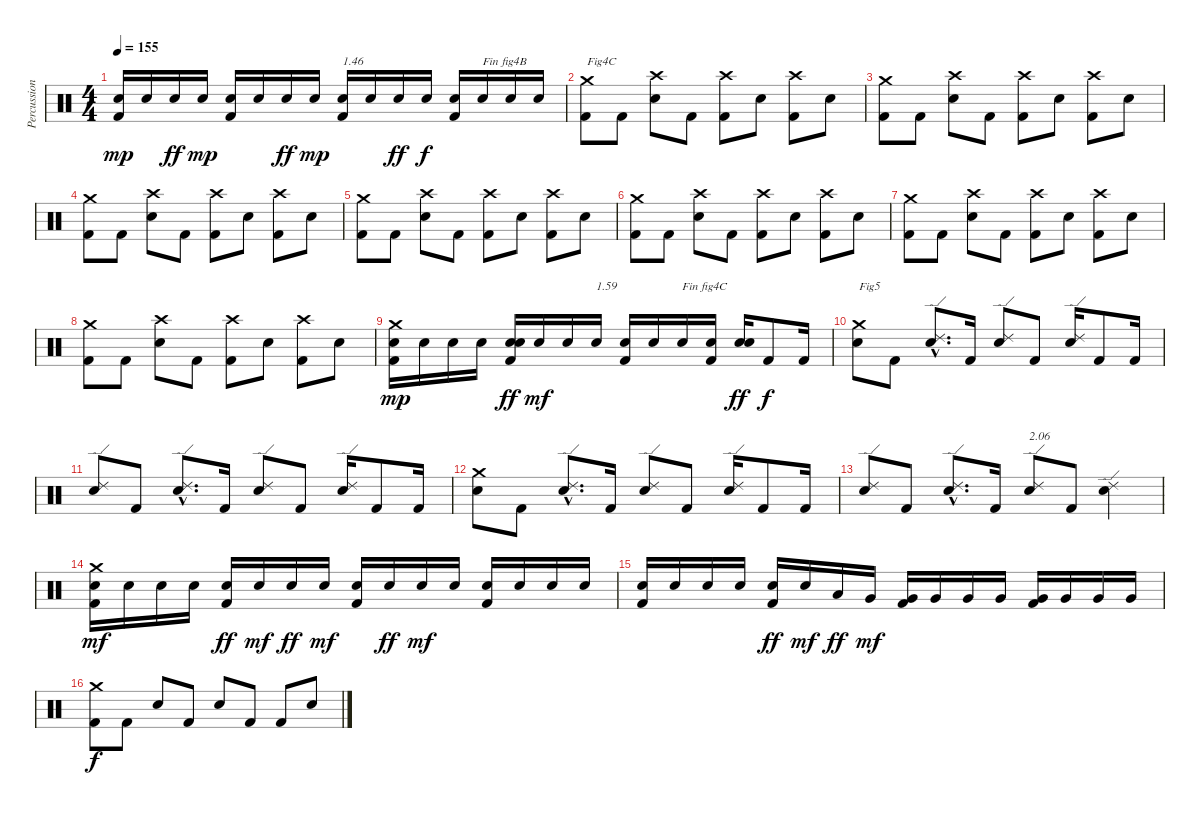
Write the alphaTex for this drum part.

\track ("Percussions" "Percussion") {instrument percussion}
\staff {score}
\articulation defaults
\ts (4 4)
\tempo 155
\clef neutral
\ks c
("Kick (hit) 2" "Electric Snare (hit)").16{dy mp} "Electric Snare (hit)".16 "Electric Snare (hit)".16{dy ff} "Electric Snare (hit)".16{dy mp} ("Kick (hit) 2" "Electric Snare (hit)").16 "Electric Snare (hit)".16 "Electric Snare (hit)".16{dy ff} "Electric Snare (hit)".16{dy mp} ("Kick (hit) 2" "Electric Snare (hit)").16{txt "1.46"} "Electric Snare (hit)".16 "Electric Snare (hit)".16{dy ff} "Electric Snare (hit)".16{dy f} ("Kick (hit) 2" "Electric Snare (hit)").16 "Electric Snare (hit)".16{txt "Fin fig4B"} "Electric Snare (hit)".16 "Electric Snare (hit)".16 |
("Kick (hit) 2" "Crash medium (hit)").8{txt "Fig4C"} "Kick (hit) 2".8 ("Electric Snare (hit)" "Crash high (hit)").8 "Kick (hit) 2".8 ("Kick (hit) 2" "Crash high (hit)").8 "Electric Snare (hit)".8 ("Kick (hit) 2" "Crash high (hit)").8 "Electric Snare (hit)".8 |
("Kick (hit) 2" "Crash medium (hit)").8 "Kick (hit) 2".8 ("Electric Snare (hit)" "Crash high (hit)").8 "Kick (hit) 2".8 ("Kick (hit) 2" "Crash high (hit)").8 "Electric Snare (hit)".8 ("Kick (hit) 2" "Crash high (hit)").8 "Electric Snare (hit)".8 |
("Kick (hit) 2" "Crash medium (hit)").8 "Kick (hit) 2".8 ("Electric Snare (hit)" "Crash high (hit)").8 "Kick (hit) 2".8 ("Kick (hit) 2" "Crash high (hit)").8 "Electric Snare (hit)".8 ("Kick (hit) 2" "Crash high (hit)").8 "Electric Snare (hit)".8 |
("Kick (hit) 2" "Crash medium (hit)").8 "Kick (hit) 2".8 ("Electric Snare (hit)" "Crash high (hit)").8 "Kick (hit) 2".8 ("Kick (hit) 2" "Crash high (hit)").8 "Electric Snare (hit)".8 ("Kick (hit) 2" "Crash high (hit)").8 "Electric Snare (hit)".8 |
("Kick (hit) 2" "Crash medium (hit)").8 "Kick (hit) 2".8 ("Electric Snare (hit)" "Crash high (hit)").8 "Kick (hit) 2".8 ("Kick (hit) 2" "Crash high (hit)").8 "Electric Snare (hit)".8 ("Kick (hit) 2" "Crash high (hit)").8 "Electric Snare (hit)".8 |
("Kick (hit) 2" "Crash medium (hit)").8 "Kick (hit) 2".8 ("Electric Snare (hit)" "Crash high (hit)").8 "Kick (hit) 2".8 ("Kick (hit) 2" "Crash high (hit)").8 "Electric Snare (hit)".8 ("Kick (hit) 2" "Crash high (hit)").8 "Electric Snare (hit)".8 |
("Kick (hit) 2" "Crash medium (hit)").8 "Kick (hit) 2".8 ("Electric Snare (hit)" "Crash high (hit)").8 "Kick (hit) 2".8 ("Kick (hit) 2" "Crash high (hit)").8 "Electric Snare (hit)".8 ("Kick (hit) 2" "Crash high (hit)").8 "Electric Snare (hit)".8 |
("Kick (hit) 2" "Electric Snare (hit)" "Crash medium (hit)").16{dy mp} "Electric Snare (hit)".16 "Electric Snare (hit)".16 "Electric Snare (hit)".16 ("Kick (hit) 2" "Electric Snare (hit)" "Electric Snare (hit)").16{dy ff} "Electric Snare (hit)".16{dy mf} "Electric Snare (hit)".16 "Electric Snare (hit)".16{txt "1.59"} ("Kick (hit) 2" "Electric Snare (hit)").16 "Electric Snare (hit)".16 "Electric Snare (hit)".16{txt "Fin fig4C"} ("Kick (hit) 2" "Electric Snare (hit)").16 ("Electric Snare (hit)" "Electric Snare (hit)").16{dy ff} "Kick (hit) 2".8{dy f} "Kick (hit) 2".16 |
("Electric Snare (hit)" "Crash medium (hit)").8{txt "Fig5"} "Kick (hit) 2".8 ("Electric Snare (hit)"{hac} "Ride (edge) 2"{hac}).8{d} "Kick (hit) 2".16 ("Electric Snare (hit)" "Ride (edge) 2").8 "Kick (hit) 2".8 ("Electric Snare (hit)" "Ride (edge) 2").16 "Kick (hit) 2".8 "Kick (hit) 2".16 |
("Electric Snare (hit)" "Ride (edge) 2").8 "Kick (hit) 2".8 ("Electric Snare (hit)"{hac} "Ride (edge) 2"{hac}).8{d} "Kick (hit) 2".16 ("Electric Snare (hit)" "Ride (edge) 2").8 "Kick (hit) 2".8 ("Electric Snare (hit)" "Ride (edge) 2").16 "Kick (hit) 2".8 "Kick (hit) 2".16 |
("Electric Snare (hit)" "Crash medium (hit)").8 "Kick (hit) 2".8 ("Electric Snare (hit)"{hac} "Ride (edge) 2"{hac}).8{d} "Kick (hit) 2".16 ("Electric Snare (hit)" "Ride (edge) 2").8 "Kick (hit) 2".8 ("Electric Snare (hit)" "Ride (edge) 2").16 "Kick (hit) 2".8 "Kick (hit) 2".16 |
("Electric Snare (hit)" "Ride (edge) 2").8 "Kick (hit) 2".8 ("Electric Snare (hit)"{hac} "Ride (edge) 2"{hac}).8{d} "Kick (hit) 2".16 ("Electric Snare (hit)" "Ride (edge) 2").8{txt "2.06"} "Kick (hit) 2".8 ("Electric Snare (hit)" "Ride (edge) 2").4 |
("Kick (hit) 2" "Electric Snare (hit)" "Crash medium (hit)").16{dy mf} "Electric Snare (hit)".16 "Electric Snare (hit)".16 "Electric Snare (hit)".16 ("Kick (hit) 2" "Electric Snare (hit)").16{dy ff} "Electric Snare (hit)".16{dy mf} "Electric Snare (hit)".16{dy ff} "Electric Snare (hit)".16{dy mf} ("Kick (hit) 2" "Electric Snare (hit)").16 "Electric Snare (hit)".16{dy ff} "Electric Snare (hit)".16{dy mf} "Electric Snare (hit)".16 ("Kick (hit) 2" "Electric Snare (hit)").16 "Electric Snare (hit)".16 "Electric Snare (hit)".16 "Electric Snare (hit)".16 |
("Kick (hit) 2" "Electric Snare (hit)").16 "Electric Snare (hit)".16 "Electric Snare (hit)".16 "Electric Snare (hit)".16 ("Kick (hit) 2" "Electric Snare (hit)").16{dy ff} "Electric Snare (hit)".16{dy mf} "Low Tom (hit)".16{dy ff} "Very Low Tom (hit)".16{dy mf} ("Kick (hit) 2" "Very Low Tom (hit)").16 "Very Low Tom (hit)".16 "Very Low Tom (hit)".16 "Very Low Tom (hit)".16 ("Kick (hit) 2" "Very Low Tom (hit)").16 "Very Low Tom (hit)".16 "Very Low Tom (hit)".16 "Very Low Tom (hit)".16 |
("Kick (hit) 2" "Crash medium (hit)").8{dy f} "Kick (hit) 2".8 "Electric Snare (hit)".8 "Kick (hit) 2".8 "Electric Snare (hit)".8 "Kick (hit) 2".8 "Kick (hit) 2".8 "Electric Snare (hit)".8
